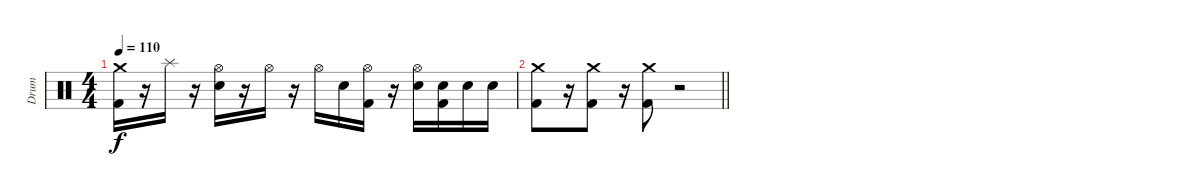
\track ("Drum" "Drum") {instrument percussion}
\staff {score}
\articulation defaults
\ts (4 4)
\tempo 110
\clef neutral
\ks c
("Crash medium (hit)" "Kick (hit) 2").16{dy f} r.16 "Splash (hit)".16 r.16 ("Hi-Hat (open)" "Electric Snare (hit)").16 r.16 "Hi-Hat (open)".16 r.16 "Hi-Hat (open)".16 "Electric Snare (hit)".16 ("Hi-Hat (open)" "Kick (hit) 2").16 r.16 ("Hi-Hat (open)" "Electric Snare (hit)").16 ("Electric Snare (hit)" "Kick (hit) 2").16 "Electric Snare (hit)".16 "Electric Snare (hit)".16 |
\barLineRight lightlight
("Crash medium (hit)" "Kick (hit) 2").8 r.16 ("Crash medium (hit)" "Kick (hit) 2").8 r.16 ("Crash medium (hit)" "Kick (hit) 2").8 r.2
